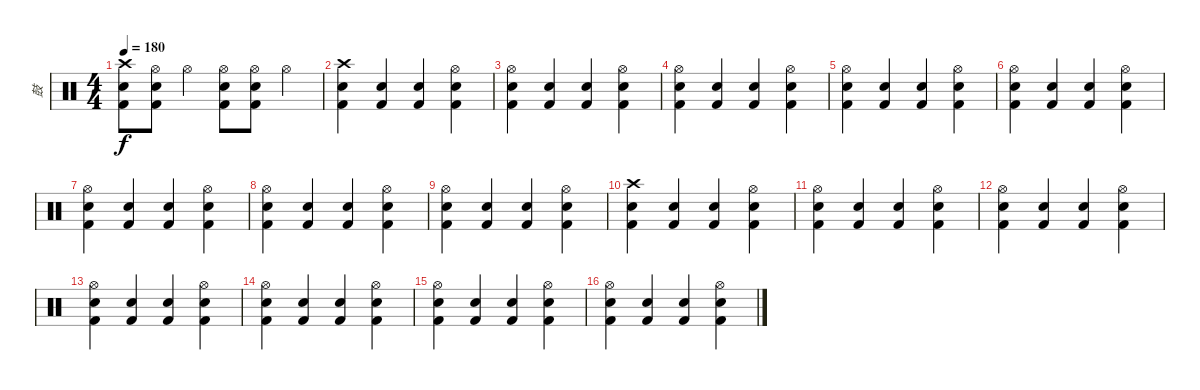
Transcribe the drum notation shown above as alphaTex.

\track ("鼓" "鼓") {instrument percussion}
\staff {score}
\articulation defaults
\ts (4 4)
\tempo 180
\clef neutral
\ks c
("Crash high (hit)" "Snare (hit) 2" "Kick (hit) 2").8{dy f} ("Hi-Hat (open)" "Snare (hit) 2" "Kick (hit) 2").8 "Hi-Hat (open)".4 ("Hi-Hat (open)" "Snare (hit) 2" "Kick (hit) 2").8 ("Hi-Hat (open)" "Snare (hit) 2" "Kick (hit) 2").8 "Hi-Hat (open)".4 |
("Crash high (hit)" "Snare (hit) 2" "Kick (hit) 2").4 ("Snare (hit) 2" "Kick (hit) 2").4 ("Snare (hit) 2" "Kick (hit) 2").4 ("Hi-Hat (open)" "Snare (hit) 2" "Kick (hit) 2").4 |
("Hi-Hat (open)" "Snare (hit) 2" "Kick (hit) 2").4 ("Snare (hit) 2" "Kick (hit) 2").4 ("Snare (hit) 2" "Kick (hit) 2").4 ("Hi-Hat (open)" "Snare (hit) 2" "Kick (hit) 2").4 |
("Hi-Hat (open)" "Snare (hit) 2" "Kick (hit) 2").4 ("Snare (hit) 2" "Kick (hit) 2").4 ("Snare (hit) 2" "Kick (hit) 2").4 ("Hi-Hat (open)" "Snare (hit) 2" "Kick (hit) 2").4 |
("Hi-Hat (open)" "Snare (hit) 2" "Kick (hit) 2").4 ("Snare (hit) 2" "Kick (hit) 2").4 ("Snare (hit) 2" "Kick (hit) 2").4 ("Hi-Hat (open)" "Snare (hit) 2" "Kick (hit) 2").4 |
("Hi-Hat (open)" "Snare (hit) 2" "Kick (hit) 2").4 ("Snare (hit) 2" "Kick (hit) 2").4 ("Snare (hit) 2" "Kick (hit) 2").4 ("Hi-Hat (open)" "Snare (hit) 2" "Kick (hit) 2").4 |
("Hi-Hat (open)" "Snare (hit) 2" "Kick (hit) 2").4 ("Snare (hit) 2" "Kick (hit) 2").4 ("Snare (hit) 2" "Kick (hit) 2").4 ("Hi-Hat (open)" "Snare (hit) 2" "Kick (hit) 2").4 |
("Hi-Hat (open)" "Snare (hit) 2" "Kick (hit) 2").4 ("Snare (hit) 2" "Kick (hit) 2").4 ("Snare (hit) 2" "Kick (hit) 2").4 ("Hi-Hat (open)" "Snare (hit) 2" "Kick (hit) 2").4 |
("Hi-Hat (open)" "Snare (hit) 2" "Kick (hit) 2").4 ("Snare (hit) 2" "Kick (hit) 2").4 ("Snare (hit) 2" "Kick (hit) 2").4 ("Hi-Hat (open)" "Snare (hit) 2" "Kick (hit) 2").4 |
("Crash high (hit)" "Snare (hit) 2" "Kick (hit) 2").4 ("Snare (hit) 2" "Kick (hit) 2").4 ("Snare (hit) 2" "Kick (hit) 2").4 ("Hi-Hat (open)" "Snare (hit) 2" "Kick (hit) 2").4 |
("Hi-Hat (open)" "Snare (hit) 2" "Kick (hit) 2").4 ("Snare (hit) 2" "Kick (hit) 2").4 ("Snare (hit) 2" "Kick (hit) 2").4 ("Hi-Hat (open)" "Snare (hit) 2" "Kick (hit) 2").4 |
("Hi-Hat (open)" "Snare (hit) 2" "Kick (hit) 2").4 ("Snare (hit) 2" "Kick (hit) 2").4 ("Snare (hit) 2" "Kick (hit) 2").4 ("Hi-Hat (open)" "Snare (hit) 2" "Kick (hit) 2").4 |
("Hi-Hat (open)" "Snare (hit) 2" "Kick (hit) 2").4 ("Snare (hit) 2" "Kick (hit) 2").4 ("Snare (hit) 2" "Kick (hit) 2").4 ("Hi-Hat (open)" "Snare (hit) 2" "Kick (hit) 2").4 |
("Hi-Hat (open)" "Snare (hit) 2" "Kick (hit) 2").4 ("Snare (hit) 2" "Kick (hit) 2").4 ("Snare (hit) 2" "Kick (hit) 2").4 ("Hi-Hat (open)" "Snare (hit) 2" "Kick (hit) 2").4 |
("Hi-Hat (open)" "Snare (hit) 2" "Kick (hit) 2").4 ("Snare (hit) 2" "Kick (hit) 2").4 ("Snare (hit) 2" "Kick (hit) 2").4 ("Hi-Hat (open)" "Snare (hit) 2" "Kick (hit) 2").4 |
("Hi-Hat (open)" "Snare (hit) 2" "Kick (hit) 2").4 ("Snare (hit) 2" "Kick (hit) 2").4 ("Snare (hit) 2" "Kick (hit) 2").4 ("Hi-Hat (open)" "Snare (hit) 2" "Kick (hit) 2").4
